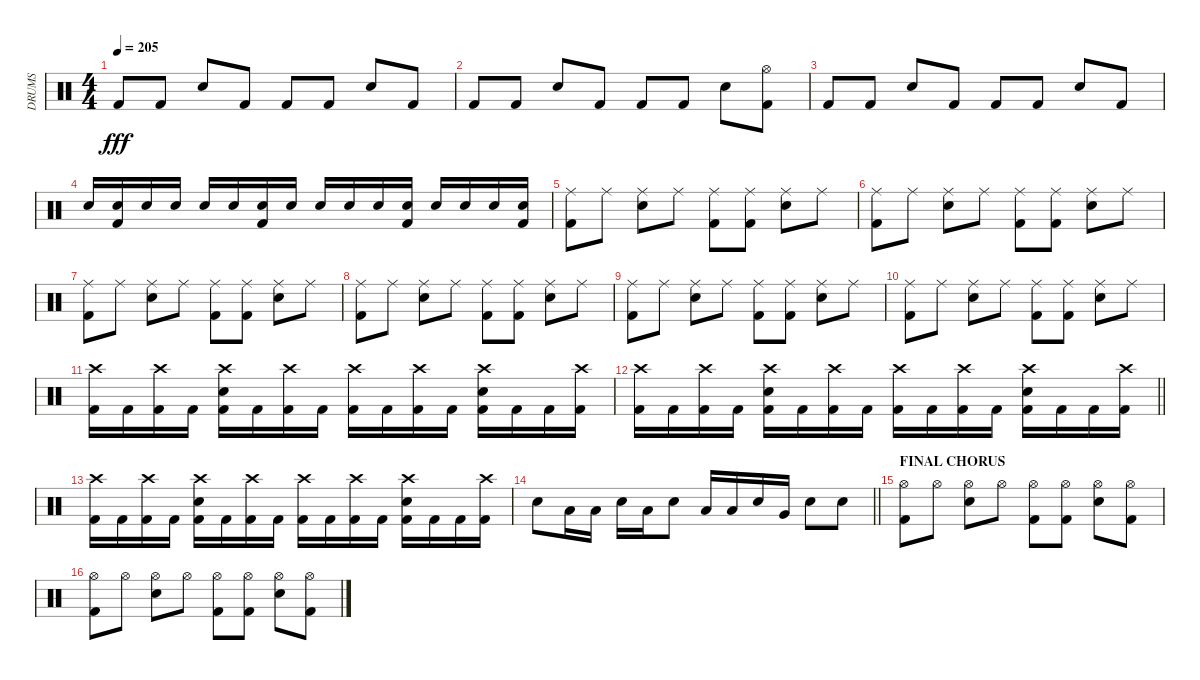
\track ("DRUMS" "DRUMS") {instrument percussion}
\staff {score}
\articulation defaults
\ts (4 4)
\tempo 205
\clef neutral
\ks c "Kick (hit) 2".8{dy fff} "Kick (hit) 2".8 "Electric Snare (hit)".8 "Kick (hit) 2".8 "Kick (hit) 2".8 "Kick (hit) 2".8 "Electric Snare (hit)".8 "Kick (hit) 2".8
|
"Kick (hit) 2".8 "Kick (hit) 2".8 "Electric Snare (hit)".8 "Kick (hit) 2".8 "Kick (hit) 2".8 "Kick (hit) 2".8 "Electric Snare (hit)".8 ("Hi-Hat (open)" "Kick (hit) 2").8 |
"Kick (hit) 2".8 "Kick (hit) 2".8 "Electric Snare (hit)".8 "Kick (hit) 2".8 "Kick (hit) 2".8 "Kick (hit) 2".8 "Electric Snare (hit)".8 "Kick (hit) 2".8 |
"Electric Snare (hit)".16 ("Electric Snare (hit)" "Kick (hit) 2").16 "Electric Snare (hit)".16 "Electric Snare (hit)".16 "Electric Snare (hit)".16 "Electric Snare (hit)".16 ("Electric Snare (hit)" "Kick (hit) 2").16 "Electric Snare (hit)".16 "Electric Snare (hit)".16 "Electric Snare (hit)".16 "Electric Snare (hit)".16 ("Electric Snare (hit)" "Kick (hit) 2").16 "Electric Snare (hit)".16 "Electric Snare (hit)".16 "Electric Snare (hit)".16 ("Electric Snare (hit)" "Kick (hit) 2").16 |
("Ride (middle)" "Kick (hit) 2").8 "Ride (middle)".8 ("Ride (middle)" "Electric Snare (hit)").8 "Ride (middle)".8 ("Ride (middle)" "Kick (hit) 2").8 ("Ride (middle)" "Kick (hit) 2").8 ("Ride (middle)" "Electric Snare (hit)").8 "Ride (middle)".8 |
("Ride (middle)" "Kick (hit) 2").8 "Ride (middle)".8 ("Ride (middle)" "Electric Snare (hit)").8 "Ride (middle)".8 ("Ride (middle)" "Kick (hit) 2").8 ("Ride (middle)" "Kick (hit) 2").8 ("Ride (middle)" "Electric Snare (hit)").8 "Ride (middle)".8 |
("Ride (middle)" "Kick (hit) 2").8 "Ride (middle)".8 ("Ride (middle)" "Electric Snare (hit)").8 "Ride (middle)".8 ("Ride (middle)" "Kick (hit) 2").8 ("Ride (middle)" "Kick (hit) 2").8 ("Ride (middle)" "Electric Snare (hit)").8 "Ride (middle)".8 |
("Ride (middle)" "Kick (hit) 2").8 "Ride (middle)".8 ("Ride (middle)" "Electric Snare (hit)").8 "Ride (middle)".8 ("Ride (middle)" "Kick (hit) 2").8 ("Ride (middle)" "Kick (hit) 2").8 ("Ride (middle)" "Electric Snare (hit)").8 "Ride (middle)".8 |
("Ride (middle)" "Kick (hit) 2").8 "Ride (middle)".8 ("Ride (middle)" "Electric Snare (hit)").8 "Ride (middle)".8 ("Ride (middle)" "Kick (hit) 2").8 ("Ride (middle)" "Kick (hit) 2").8 ("Ride (middle)" "Electric Snare (hit)").8 "Ride (middle)".8 |
("Ride (middle)" "Kick (hit) 2").8 "Ride (middle)".8 ("Ride (middle)" "Electric Snare (hit)").8 "Ride (middle)".8 ("Ride (middle)" "Kick (hit) 2").8 ("Ride (middle)" "Kick (hit) 2").8 ("Ride (middle)" "Electric Snare (hit)").8 "Ride (middle)".8 |
("Crash high (hit)" "Kick (hit) 2").16 "Kick (hit) 2".16 ("Crash high (hit)" "Kick (hit) 2").16 "Kick (hit) 2".16 ("Crash high (hit)" "Electric Snare (hit)" "Kick (hit) 2").16 "Kick (hit) 2".16 ("Crash high (hit)" "Kick (hit) 2").16 "Kick (hit) 2".16 ("Crash high (hit)" "Kick (hit) 2").16 "Kick (hit) 2".16 ("Crash high (hit)" "Kick (hit) 2").16 "Kick (hit) 2".16 ("Crash high (hit)" "Electric Snare (hit)" "Kick (hit) 2").16 "Kick (hit) 2".16 "Kick (hit) 2".16 ("Crash high (hit)" "Kick (hit) 2").16 |
\barLineRight lightlight
("Crash high (hit)" "Kick (hit) 2").16 "Kick (hit) 2".16 ("Crash high (hit)" "Kick (hit) 2").16 "Kick (hit) 2".16 ("Crash high (hit)" "Electric Snare (hit)" "Kick (hit) 2").16 "Kick (hit) 2".16 ("Crash high (hit)" "Kick (hit) 2").16 "Kick (hit) 2".16 ("Crash high (hit)" "Kick (hit) 2").16 "Kick (hit) 2".16 ("Crash high (hit)" "Kick (hit) 2").16 "Kick (hit) 2".16 ("Crash high (hit)" "Electric Snare (hit)" "Kick (hit) 2").16 "Kick (hit) 2".16 "Kick (hit) 2".16 ("Crash high (hit)" "Kick (hit) 2").16 |
("Crash high (hit)" "Kick (hit) 2").16 "Kick (hit) 2".16 ("Crash high (hit)" "Kick (hit) 2").16 "Kick (hit) 2".16 ("Crash high (hit)" "Electric Snare (hit)" "Kick (hit) 2").16 "Kick (hit) 2".16 ("Crash high (hit)" "Kick (hit) 2").16 "Kick (hit) 2".16 ("Crash high (hit)" "Kick (hit) 2").16 "Kick (hit) 2".16 ("Crash high (hit)" "Kick (hit) 2").16 "Kick (hit) 2".16 ("Crash high (hit)" "Electric Snare (hit)" "Kick (hit) 2").16 "Kick (hit) 2".16 "Kick (hit) 2".16 ("Crash high (hit)" "Kick (hit) 2").16 |
\barLineRight lightlight "Electric Snare (hit)".8 "Low Tom (hit)".16 "Low Tom (hit)".16 "Electric Snare (hit)".16 "Low Tom (hit)".16 "Electric Snare (hit)".8 "Low Tom (hit)".16 "Low Tom (hit)".16 "Electric Snare (hit)".16 "Very Low Tom (hit)".16 "Electric Snare (hit)".8 "Electric Snare (hit)".8
|
\section ("" "FINAL CHORUS")
("Hi-Hat (open)" "Kick (hit) 2").8 "Hi-Hat (open)".8 ("Hi-Hat (open)" "Electric Snare (hit)").8 "Hi-Hat (open)".8 ("Hi-Hat (open)" "Kick (hit) 2").8 ("Hi-Hat (open)" "Kick (hit) 2").8 ("Hi-Hat (open)" "Electric Snare (hit)").8 ("Hi-Hat (open)" "Kick (hit) 2").8 |
("Hi-Hat (open)" "Kick (hit) 2").8 "Hi-Hat (open)".8 ("Hi-Hat (open)" "Electric Snare (hit)").8 "Hi-Hat (open)".8 ("Hi-Hat (open)" "Kick (hit) 2").8 ("Hi-Hat (open)" "Kick (hit) 2").8 ("Hi-Hat (open)" "Electric Snare (hit)").8 ("Hi-Hat (open)" "Kick (hit) 2").8
